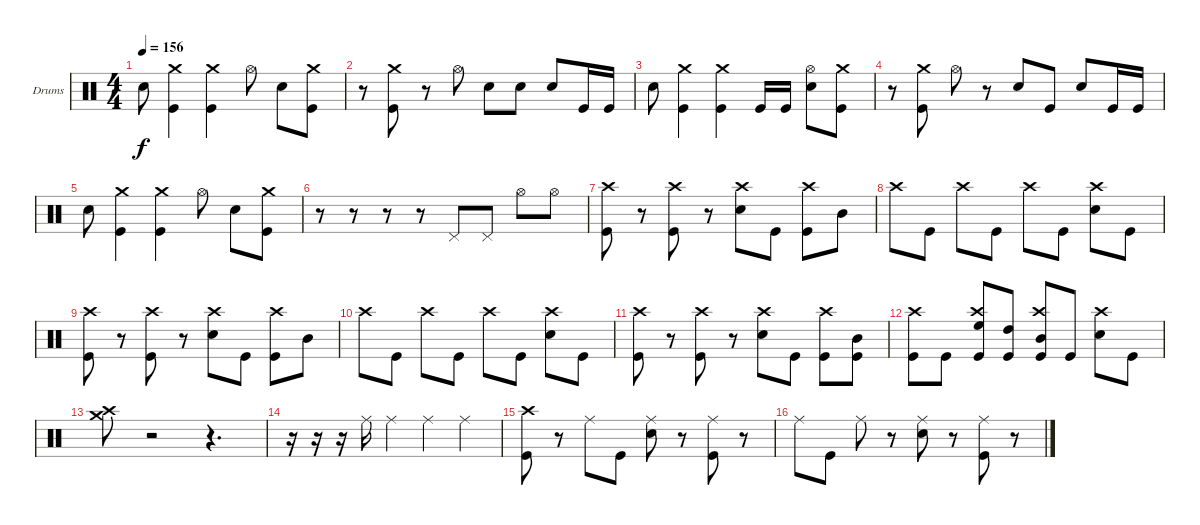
\defaultSystemsLayout 4
\bracketExtendMode groupsimilarinstruments
\firstSystemTrackNameOrientation horizontal
\otherSystemsTrackNameOrientation horizontal
\track ("Anton Kubrak" "Drums") {instrument percussion}
\staff {score}
\articulation defaults
\ts (4 4)
\tempo 156
\clef neutral
\scale
0.333333
\ks c "Snare (hit) 2".8{dy f}
("Crash medium (hit)" "Kick (hit)").4 ("Crash medium (hit)" "Kick (hit)").4 "Hi-Hat (open)".8 "Snare (hit) 2".8 ("Crash medium (hit)" "Kick (hit)").8 |
\scale
0.333333 r.8 ("Crash medium (hit)" "Kick (hit)").8 r.8 "Hi-Hat (open)".8 "Snare (hit) 2".8 "Snare (hit) 2".8 "Snare (hit) 2".8 "Kick (hit)".16 "Kick (hit)".16 |
\scale
0.333333 "Snare (hit) 2".8 ("Crash medium (hit)" "Kick (hit)").4 ("Crash medium (hit)" "Kick (hit)").4 "Kick (hit)".16 "Kick (hit)".16 ("Hi-Hat (open)" "Snare (hit) 2").8 ("Crash medium (hit)" "Kick (hit)").8 |
\scale
0.333333 r.8 ("Crash medium (hit)" "Kick (hit)").8 "Hi-Hat (open)".8 r.8 "Snare (hit) 2".8 "Kick (hit)".8 "Snare (hit) 2".8 "Kick (hit)".16 "Kick (hit)".16 |
\scale
0.333333 "Snare (hit) 2".8 ("Crash medium (hit)" "Kick (hit)").4 ("Crash medium (hit)" "Kick (hit)").4 "Hi-Hat (open)".8 "Snare (hit) 2".8 ("Crash medium (hit)" "Kick (hit)").8 |
\scale
0.333333 r.8 r.8 r.8 r.8 "Pedal Hi-Hat (hit)".8 "Pedal Hi-Hat (hit)".8 "Hi-Hat (open)".8 "Hi-Hat (open)".8 |
\scale
0.333333 ("Crash high (hit)" "Kick (hit)").8 r.8 ("Crash high (hit)" "Kick (hit)").8 r.8 ("Crash high (hit)" "Snare (hit) 2").8 "Kick (hit)".8 ("Crash high (hit)" "Kick (hit)").8 "Mid Tom (hit)".8 |
\scale
0.333333 "Crash high (hit)".8 "Kick (hit)".8 "Crash high (hit)".8 "Kick (hit)".8 "Crash high (hit)".8 "Kick (hit)".8 ("Crash high (hit)" "Snare (hit) 2").8 "Kick (hit)".8 |
\scale
0.333333 ("Crash high (hit)" "Kick (hit)").8 r.8 ("Crash high (hit)" "Kick (hit)").8 r.8 ("Crash high (hit)" "Snare (hit) 2").8 "Kick (hit)".8 ("Crash high (hit)" "Kick (hit)").8 "Mid Tom (hit)".8 |
\scale
0.333333 "Crash high (hit)".8 "Kick (hit)".8 "Crash high (hit)".8 "Kick (hit)".8 "Crash high (hit)".8 "Kick (hit)".8 ("Crash high (hit)" "Snare (hit) 2").8 "Kick (hit)".8 |
\scale
0.333333 ("Crash high (hit)" "Kick (hit)").8 r.8 ("Crash high (hit)" "Kick (hit)").8 r.8 ("Crash high (hit)" "Snare (hit) 2").8 "Kick (hit)".8 ("Crash high (hit)" "Kick (hit)").8 ("Kick (hit)" "Mid Tom (hit)").8 |
\scale
0.333333 ("Crash high (hit)" "Kick (hit)").8 "Kick (hit)".8 ("Crash high (hit)" "Kick (hit)" "High Floor Tom (hit)").8 ("Kick (hit)" "High Tom (hit)").8 ("Crash high (hit)" "Kick (hit)" "Mid Tom (hit)").8 "Kick (hit)".8 ("Crash high (hit)" "Snare (hit) 2").8 "Kick (hit)".8 |
\scale
0.333333 ("Crash medium (hit)" "Crash high (hit)").8 r.2 r.4{d} |
\scale
0.333333 r.16 r.16 r.16 "Ride (middle)".16 "Ride (middle)".4 "Ride (middle)".4 "Ride (middle)".4 |
\scale
0.333333 ("Crash high (hit)" "Kick (hit)").8 r.8 "Ride (middle)".8 "Kick (hit)".8 ("Ride (middle)" "Snare (hit) 2").8 r.8 ("Ride (middle)" "Kick (hit)").8 r.8 |
\scale
0.333333 "Ride (middle)".8 "Kick (hit)".8 "Ride (middle)".8 r.8 ("Ride (middle)" "Snare (hit) 2").8 r.8 ("Ride (middle)" "Kick (hit)").8 r.8
